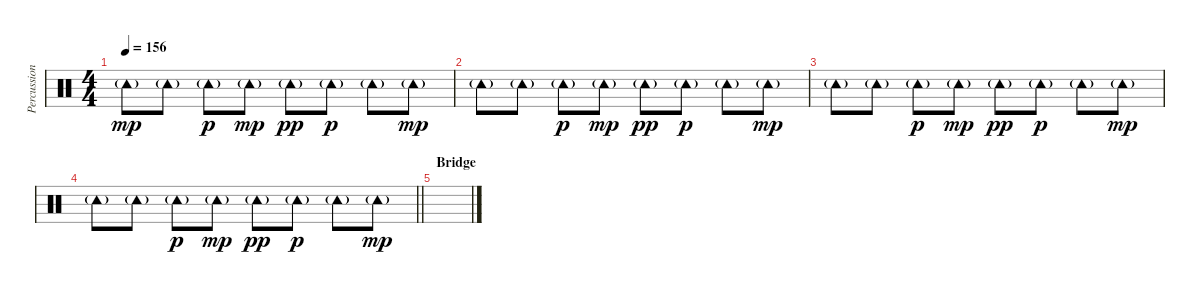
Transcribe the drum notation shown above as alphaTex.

\track ("Percussion 2" "Percussion") {instrument percussion}
\staff {score}
\articulation defaults
\ts (4 4)
\tempo 156
\clef neutral
\ks c "Tambourine (hit)"{g}.8{dy mp} "Tambourine (hit)"{g}.8 "Tambourine (hit)"{g}.8{dy p} "Tambourine (hit)"{g}.8{dy mp} "Tambourine (hit)"{g}.8{dy pp} "Tambourine (hit)"{g}.8{dy p} "Tambourine (hit)"{g}.8 "Tambourine (hit)"{g}.8{dy mp}
|
"Tambourine (hit)"{g}.8 "Tambourine (hit)"{g}.8 "Tambourine (hit)"{g}.8{dy p} "Tambourine (hit)"{g}.8{dy mp} "Tambourine (hit)"{g}.8{dy pp} "Tambourine (hit)"{g}.8{dy p} "Tambourine (hit)"{g}.8 "Tambourine (hit)"{g}.8{dy mp} |
"Tambourine (hit)"{g}.8 "Tambourine (hit)"{g}.8 "Tambourine (hit)"{g}.8{dy p} "Tambourine (hit)"{g}.8{dy mp} "Tambourine (hit)"{g}.8{dy pp} "Tambourine (hit)"{g}.8{dy p} "Tambourine (hit)"{g}.8 "Tambourine (hit)"{g}.8{dy mp} |
\barLineRight lightlight "Tambourine (hit)"{g}.8 "Tambourine (hit)"{g}.8 "Tambourine (hit)"{g}.8{dy p} "Tambourine (hit)"{g}.8{dy mp} "Tambourine (hit)"{g}.8{dy pp} "Tambourine (hit)"{g}.8{dy p} "Tambourine (hit)"{g}.8 "Tambourine (hit)"{g}.8{dy mp}
|
\section ("" "Bridge")
